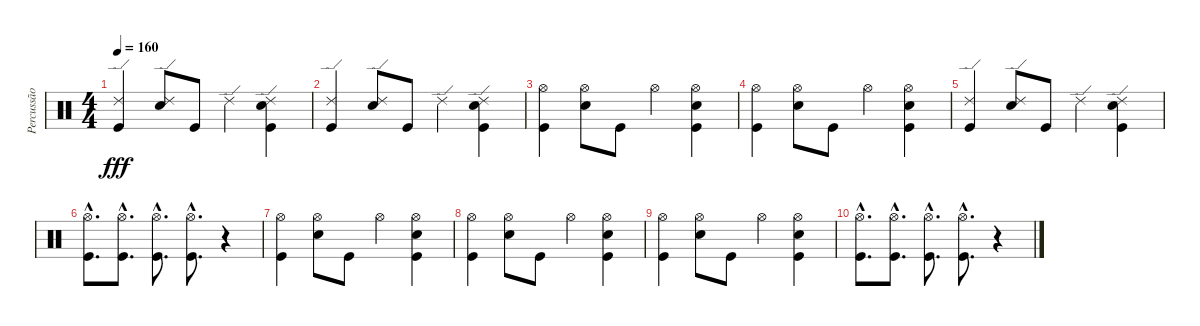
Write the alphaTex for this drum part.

\track ("Percussão" "Percussão") {instrument percussion}
\staff {score}
\articulation defaults
\ts (4 4)
\tempo 160
\clef neutral
\ks c
("Ride (edge) 2" "Kick (hit)").4{dy fff} ("Ride (edge) 2" "Snare (hit) 2").8 "Kick (hit)".8 "Ride (edge) 2".4 ("Ride (edge) 2" "Snare (hit) 2" "Kick (hit)").4 |
("Ride (edge) 2" "Kick (hit)").4 ("Ride (edge) 2" "Snare (hit) 2").8 "Kick (hit)".8 "Ride (edge) 2".4 ("Ride (edge) 2" "Snare (hit) 2" "Kick (hit)").4 |
("Hi-Hat (open)" "Kick (hit)").4 ("Hi-Hat (open)" "Snare (hit) 2").8 "Kick (hit)".8 "Hi-Hat (open)".4 ("Hi-Hat (open)" "Snare (hit) 2" "Kick (hit)").4 |
("Hi-Hat (open)" "Kick (hit)").4 ("Hi-Hat (open)" "Snare (hit) 2").8 "Kick (hit)".8 "Hi-Hat (open)".4 ("Hi-Hat (open)" "Snare (hit) 2" "Kick (hit)").4 |
("Ride (edge) 2" "Kick (hit)").4 ("Ride (edge) 2" "Snare (hit) 2").8 "Kick (hit)".8 "Ride (edge) 2".4 ("Ride (edge) 2" "Snare (hit) 2" "Kick (hit)").4 |
("Hi-Hat (open)"{hac} "Kick (hit)"{hac}).8{d} ("Hi-Hat (open)"{hac} "Kick (hit)"{hac}).8{d} ("Hi-Hat (open)"{hac} "Kick (hit)"{hac}).8{d} ("Hi-Hat (open)"{hac} "Kick (hit)"{hac}).8{d} r.4 |
("Hi-Hat (open)" "Kick (hit)").4 ("Hi-Hat (open)" "Snare (hit) 2").8 "Kick (hit)".8 "Hi-Hat (open)".4 ("Hi-Hat (open)" "Snare (hit) 2" "Kick (hit)").4 |
("Hi-Hat (open)" "Kick (hit)").4 ("Hi-Hat (open)" "Snare (hit) 2").8 "Kick (hit)".8 "Hi-Hat (open)".4 ("Hi-Hat (open)" "Snare (hit) 2" "Kick (hit)").4 |
("Hi-Hat (open)" "Kick (hit)").4 ("Hi-Hat (open)" "Snare (hit) 2").8 "Kick (hit)".8 "Hi-Hat (open)".4 ("Hi-Hat (open)" "Snare (hit) 2" "Kick (hit)").4 |
("Hi-Hat (open)"{hac} "Kick (hit)"{hac}).8{d} ("Hi-Hat (open)"{hac} "Kick (hit)"{hac}).8{d} ("Hi-Hat (open)"{hac} "Kick (hit)"{hac}).8{d} ("Hi-Hat (open)"{hac} "Kick (hit)"{hac}).8{d} r.4
